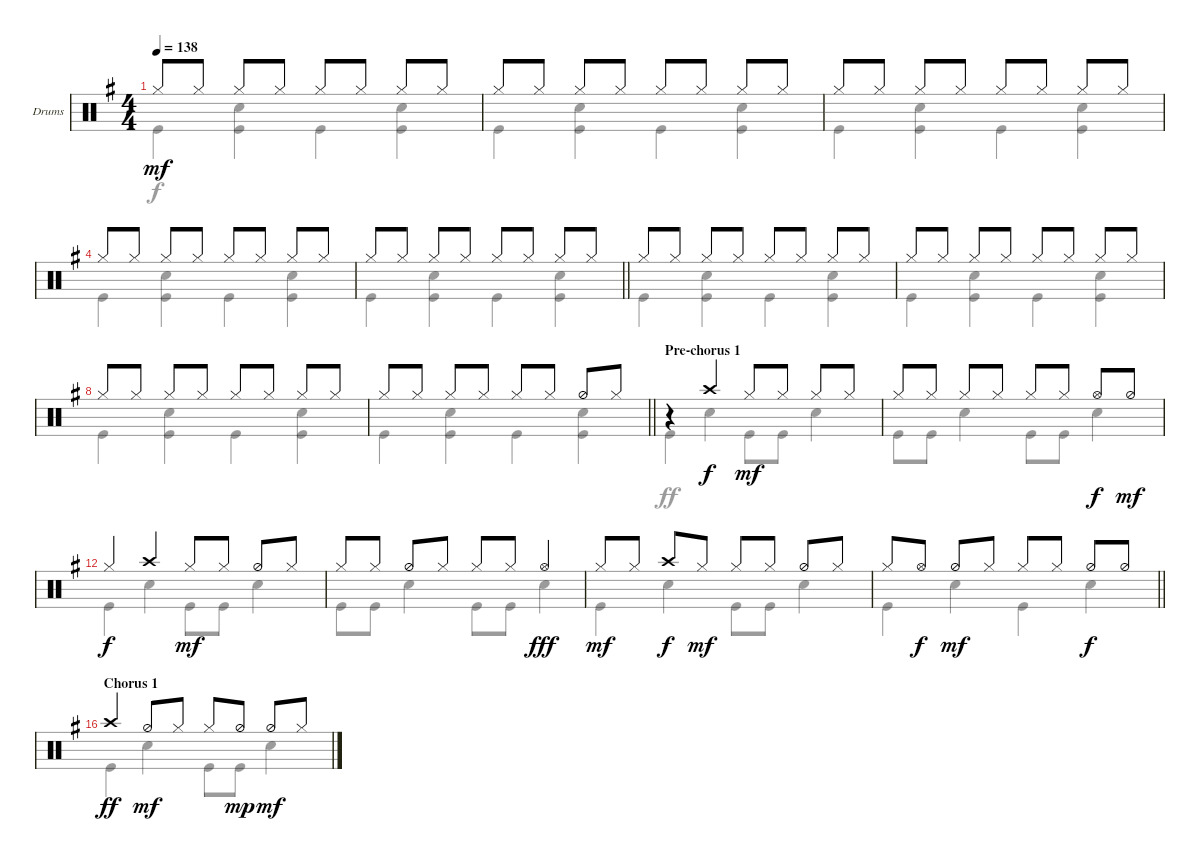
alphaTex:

\defaultSystemsLayout 4
\bracketExtendMode groupsimilarinstruments
\useSystemSignSeparator
\multiBarRest
\multiTrackTrackNamePolicy allsystems
\firstSystemTrackNameMode fullname
\firstSystemTrackNameOrientation horizontal
\otherSystemsTrackNameOrientation horizontal
\defaultBarNumberDisplay FirstOfSystem
\track ("Drums" "Dr.") {multiBarRest instrument percussion}
\staff {score}
\articulation defaults
\voice
\ts (4 4)
\tempo 138
\clef neutral
\ks g "Hi-Hat (closed)".8{dy mf} "Hi-Hat (closed)".8 "Hi-Hat (closed)".8 "Hi-Hat (closed)".8 "Hi-Hat (closed)".8 "Hi-Hat (closed)".8 "Hi-Hat (closed)".8 "Hi-Hat (closed)".8
|
"Hi-Hat (closed)".8 "Hi-Hat (closed)".8 "Hi-Hat (closed)".8 "Hi-Hat (closed)".8 "Hi-Hat (closed)".8 "Hi-Hat (closed)".8 "Hi-Hat (closed)".8 "Hi-Hat (closed)".8 |
"Hi-Hat (closed)".8 "Hi-Hat (closed)".8 "Hi-Hat (closed)".8 "Hi-Hat (closed)".8 "Hi-Hat (closed)".8 "Hi-Hat (closed)".8 "Hi-Hat (closed)".8 "Hi-Hat (closed)".8 |
"Hi-Hat (closed)".8 "Hi-Hat (closed)".8 "Hi-Hat (closed)".8 "Hi-Hat (closed)".8 "Hi-Hat (closed)".8 "Hi-Hat (closed)".8 "Hi-Hat (closed)".8 "Hi-Hat (closed)".8 |
\barLineRight lightlight "Hi-Hat (closed)".8 "Hi-Hat (closed)".8 "Hi-Hat (closed)".8 "Hi-Hat (closed)".8 "Hi-Hat (closed)".8 "Hi-Hat (closed)".8 "Hi-Hat (closed)".8 "Hi-Hat (closed)".8
|
"Hi-Hat (closed)".8 "Hi-Hat (closed)".8 "Hi-Hat (closed)".8 "Hi-Hat (closed)".8 "Hi-Hat (closed)".8 "Hi-Hat (closed)".8 "Hi-Hat (closed)".8 "Hi-Hat (closed)".8 |
"Hi-Hat (closed)".8 "Hi-Hat (closed)".8 "Hi-Hat (closed)".8 "Hi-Hat (closed)".8 "Hi-Hat (closed)".8 "Hi-Hat (closed)".8 "Hi-Hat (closed)".8 "Hi-Hat (closed)".8 |
"Hi-Hat (closed)".8 "Hi-Hat (closed)".8 "Hi-Hat (closed)".8 "Hi-Hat (closed)".8 "Hi-Hat (closed)".8 "Hi-Hat (closed)".8 "Hi-Hat (closed)".8 "Hi-Hat (closed)".8 |
\barLineRight lightlight "Hi-Hat (closed)".8 "Hi-Hat (closed)".8 "Hi-Hat (closed)".8 "Hi-Hat (closed)".8 "Hi-Hat (closed)".8 "Hi-Hat (closed)".8 "Hi-Hat (half)".8 "Hi-Hat (closed)".8
|
\section ("" "Pre-chorus 1")
r.4 "Crash high (hit)".4{dy f} "Hi-Hat (closed)".8{dy mf} "Hi-Hat (closed)".8 "Hi-Hat (closed)".8 "Hi-Hat (closed)".8 |
"Hi-Hat (closed)".8 "Hi-Hat (closed)".8 "Hi-Hat (closed)".8 "Hi-Hat (closed)".8 "Hi-Hat (closed)".8 "Hi-Hat (closed)".8 "Hi-Hat (open)".8{dy f} "Hi-Hat (half)".8{dy mf} |
"Hi-Hat (closed)".4{dy f} "Crash high (hit)".4 "Hi-Hat (closed)".8{dy mf} "Hi-Hat (closed)".8 "Hi-Hat (half)".8 "Hi-Hat (closed)".8 |
"Hi-Hat (closed)".8 "Hi-Hat (closed)".8 "Hi-Hat (half)".8 "Hi-Hat (closed)".8 "Hi-Hat (closed)".8 "Hi-Hat (closed)".8 "Hi-Hat (open)".4{dy fff} |
"Hi-Hat (closed)".8{dy mf} "Hi-Hat (closed)".8 "Crash high (hit)".8{dy f} "Hi-Hat (closed)".8{dy mf} "Hi-Hat (closed)".8 "Hi-Hat (closed)".8 "Hi-Hat (half)".8 "Hi-Hat (closed)".8 |
\barLineRight lightlight "Hi-Hat (closed)".8 "Hi-Hat (open)".8{dy f} "Hi-Hat (half)".8{dy mf} "Hi-Hat (closed)".8 "Hi-Hat (closed)".8 "Hi-Hat (closed)".8 "Hi-Hat (half)".8{dy f} "Hi-Hat (half)".8
|
\section ("" "Chorus 1")
"Crash high (hit)".4{dy ff} "Hi-Hat (half)".8{dy mf} "Hi-Hat (closed)".8 "Hi-Hat (closed)".8 "Hi-Hat (half)".8{dy mp} "Hi-Hat (half)".8{dy mf} "Hi-Hat (closed)".8
\voice
\clef neutral
\ottava regular
\simile none
\ks g "Kick (hit)".4{dy f}
("Kick (hit)" "Snare (hit) 2").4 "Kick (hit)".4 ("Kick (hit)" "Snare (hit) 2").4 |
"Kick (hit)".4 ("Kick (hit)" "Snare (hit) 2").4 "Kick (hit)".4 ("Kick (hit)" "Snare (hit) 2").4 |
"Kick (hit)".4 ("Kick (hit)" "Snare (hit) 2").4 "Kick (hit)".4 ("Kick (hit)" "Snare (hit) 2").4 |
"Kick (hit)".4 ("Kick (hit)" "Snare (hit) 2").4 "Kick (hit)".4 ("Kick (hit)" "Snare (hit) 2").4 |
\barLineRight lightlight "Kick (hit)".4
("Kick (hit)" "Snare (hit) 2").4 "Kick (hit)".4 ("Kick (hit)" "Snare (hit) 2").4 |
"Kick (hit)".4 ("Kick (hit)" "Snare (hit) 2").4 "Kick (hit)".4 ("Kick (hit)" "Snare (hit) 2").4 |
"Kick (hit)".4 ("Kick (hit)" "Snare (hit) 2").4 "Kick (hit)".4 ("Kick (hit)" "Snare (hit) 2").4 |
"Kick (hit)".4 ("Kick (hit)" "Snare (hit) 2").4 "Kick (hit)".4 ("Kick (hit)" "Snare (hit) 2").4 |
\barLineRight lightlight "Kick (hit)".4
("Kick (hit)" "Snare (hit) 2").4 "Kick (hit)".4 ("Kick (hit)" "Snare (hit) 2").4 |
"Kick (hit)".4{dy ff} "Snare (hit) 2".4 "Kick (hit)".8 "Kick (hit)".8 "Snare (hit) 2".4 |
"Kick (hit)".8 "Kick (hit)".8 "Snare (hit) 2".4 "Kick (hit)".8 "Kick (hit)".8 "Snare (hit) 2".4 |
"Kick (hit)".4 "Snare (hit) 2".4 "Kick (hit)".8 "Kick (hit)".8 "Snare (hit) 2".4 |
"Kick (hit)".8 "Kick (hit)".8 "Snare (hit) 2".4 "Kick (hit)".8 "Kick (hit)".8 "Snare (hit) 2".4 |
"Kick (hit)".4 "Snare (hit) 2".4 "Kick (hit)".8 "Kick (hit)".8 "Snare (hit) 2".4 |
\barLineRight lightlight "Kick (hit)".4 "Snare (hit) 2".4 "Kick (hit)".4 "Snare (hit) 2".4
|
"Kick (hit)".4 "Snare (hit) 2".4 "Kick (hit)".8 "Kick (hit)".8 "Snare (hit) 2".4
